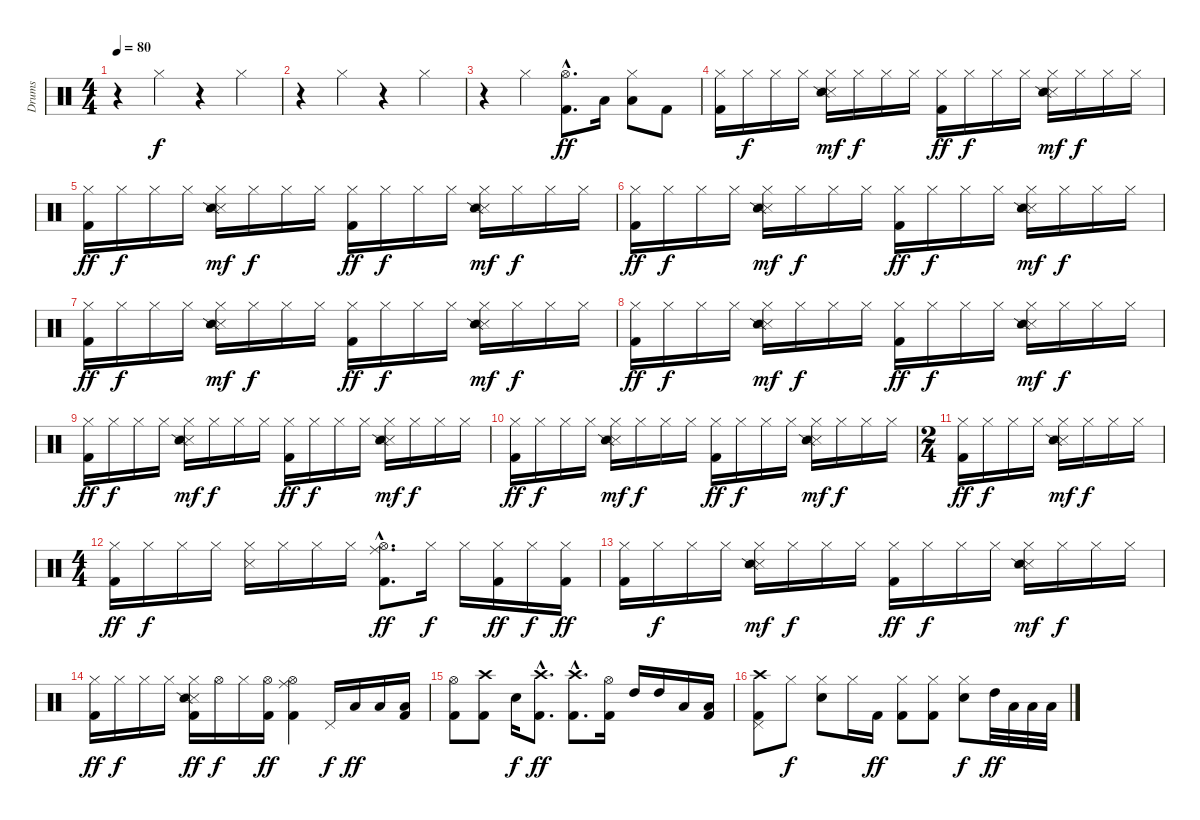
\track ("Drums" "Drums") {instrument percussion}
\staff {score}
\articulation defaults
\ts (4 4)
\tempo 80
\clef neutral
\ks c
r.4{dy f} "Hi-Hat (closed)".4 r.4 "Hi-Hat (closed)".4 |
r.4 "Hi-Hat (closed)".4 r.4 "Hi-Hat (closed)".4 |
r.4 "Hi-Hat (closed)".4 ("Hi-Hat (open)"{hac} "Kick (hit) 2"{hac}).8{d dy ff} "Low Tom (hit)".16 ("Hi-Hat (closed)" "Low Floor Tom (hit)").8 "Kick (hit) 2".8 |
("Hi-Hat (closed)" "Kick (hit) 2").16 "Hi-Hat (closed)".16{dy f} "Hi-Hat (closed)".16 "Hi-Hat (closed)".16 ("Hi-Hat (closed)" "Snare (side stick) 3" "Snare (side stick) 2").16{dy mf} "Hi-Hat (closed)".16{dy f} "Hi-Hat (closed)".16 "Hi-Hat (closed)".16 ("Hi-Hat (closed)" "Kick (hit) 2").16{dy ff} "Hi-Hat (closed)".16{dy f} "Hi-Hat (closed)".16 "Hi-Hat (closed)".16 ("Hi-Hat (closed)" "Snare (side stick) 3" "Snare (side stick) 2").16{dy mf} "Hi-Hat (closed)".16{dy f} "Hi-Hat (closed)".16 "Hi-Hat (closed)".16 |
("Hi-Hat (closed)" "Kick (hit) 2").16{dy ff} "Hi-Hat (closed)".16{dy f} "Hi-Hat (closed)".16 "Hi-Hat (closed)".16 ("Hi-Hat (closed)" "Snare (side stick) 3" "Snare (side stick) 2").16{dy mf} "Hi-Hat (closed)".16{dy f} "Hi-Hat (closed)".16 "Hi-Hat (closed)".16 ("Hi-Hat (closed)" "Kick (hit) 2").16{dy ff} "Hi-Hat (closed)".16{dy f} "Hi-Hat (closed)".16 "Hi-Hat (closed)".16 ("Hi-Hat (closed)" "Snare (side stick) 3" "Snare (side stick) 2").16{dy mf} "Hi-Hat (closed)".16{dy f} "Hi-Hat (closed)".16 "Hi-Hat (closed)".16 |
("Hi-Hat (closed)" "Kick (hit) 2").16{dy ff} "Hi-Hat (closed)".16{dy f} "Hi-Hat (closed)".16 "Hi-Hat (closed)".16 ("Hi-Hat (closed)" "Snare (side stick) 3" "Snare (side stick) 2").16{dy mf} "Hi-Hat (closed)".16{dy f} "Hi-Hat (closed)".16 "Hi-Hat (closed)".16 ("Hi-Hat (closed)" "Kick (hit) 2").16{dy ff} "Hi-Hat (closed)".16{dy f} "Hi-Hat (closed)".16 "Hi-Hat (closed)".16 ("Hi-Hat (closed)" "Snare (side stick) 3" "Snare (side stick) 2").16{dy mf} "Hi-Hat (closed)".16{dy f} "Hi-Hat (closed)".16 "Hi-Hat (closed)".16 |
("Hi-Hat (closed)" "Kick (hit) 2").16{dy ff} "Hi-Hat (closed)".16{dy f} "Hi-Hat (closed)".16 "Hi-Hat (closed)".16 ("Hi-Hat (closed)" "Snare (side stick) 3" "Snare (side stick) 2").16{dy mf} "Hi-Hat (closed)".16{dy f} "Hi-Hat (closed)".16 "Hi-Hat (closed)".16 ("Hi-Hat (closed)" "Kick (hit) 2").16{dy ff} "Hi-Hat (closed)".16{dy f} "Hi-Hat (closed)".16 "Hi-Hat (closed)".16 ("Hi-Hat (closed)" "Snare (side stick) 3" "Snare (side stick) 2").16{dy mf} "Hi-Hat (closed)".16{dy f} "Hi-Hat (closed)".16 "Hi-Hat (closed)".16 |
("Hi-Hat (closed)" "Kick (hit) 2").16{dy ff} "Hi-Hat (closed)".16{dy f} "Hi-Hat (closed)".16 "Hi-Hat (closed)".16 ("Hi-Hat (closed)" "Snare (side stick) 3" "Snare (side stick) 2").16{dy mf} "Hi-Hat (closed)".16{dy f} "Hi-Hat (closed)".16 "Hi-Hat (closed)".16 ("Hi-Hat (closed)" "Kick (hit) 2").16{dy ff} "Hi-Hat (closed)".16{dy f} "Hi-Hat (closed)".16 "Hi-Hat (closed)".16 ("Hi-Hat (closed)" "Snare (side stick) 3" "Snare (side stick) 2").16{dy mf} "Hi-Hat (closed)".16{dy f} "Hi-Hat (closed)".16 "Hi-Hat (closed)".16 |
("Hi-Hat (closed)" "Kick (hit) 2").16{dy ff} "Hi-Hat (closed)".16{dy f} "Hi-Hat (closed)".16 "Hi-Hat (closed)".16 ("Hi-Hat (closed)" "Snare (side stick) 3" "Snare (side stick) 2").16{dy mf} "Hi-Hat (closed)".16{dy f} "Hi-Hat (closed)".16 "Hi-Hat (closed)".16 ("Hi-Hat (closed)" "Kick (hit) 2").16{dy ff} "Hi-Hat (closed)".16{dy f} "Hi-Hat (closed)".16 "Hi-Hat (closed)".16 ("Hi-Hat (closed)" "Snare (side stick) 3" "Snare (side stick) 2").16{dy mf} "Hi-Hat (closed)".16{dy f} "Hi-Hat (closed)".16 "Hi-Hat (closed)".16 |
("Hi-Hat (closed)" "Kick (hit) 2").16{dy ff} "Hi-Hat (closed)".16{dy f} "Hi-Hat (closed)".16 "Hi-Hat (closed)".16 ("Hi-Hat (closed)" "Snare (side stick) 3" "Snare (side stick) 2").16{dy mf} "Hi-Hat (closed)".16{dy f} "Hi-Hat (closed)".16 "Hi-Hat (closed)".16 ("Hi-Hat (closed)" "Kick (hit) 2").16{dy ff} "Hi-Hat (closed)".16{dy f} "Hi-Hat (closed)".16 "Hi-Hat (closed)".16 ("Hi-Hat (closed)" "Snare (side stick) 3" "Snare (side stick) 2").16{dy mf} "Hi-Hat (closed)".16{dy f} "Hi-Hat (closed)".16 "Hi-Hat (closed)".16 |
\ts (2 4)
("Hi-Hat (closed)" "Kick (hit) 2").16{dy ff} "Hi-Hat (closed)".16{dy f} "Hi-Hat (closed)".16 "Hi-Hat (closed)".16 ("Hi-Hat (closed)" "Snare (side stick) 3" "Snare (side stick) 2").16{dy mf} "Hi-Hat (closed)".16{dy f} "Hi-Hat (closed)".16 "Hi-Hat (closed)".16 |
\ts (4 4)
("Hi-Hat (closed)" "Kick (hit) 2").16{dy ff} "Hi-Hat (closed)".16{dy f} "Hi-Hat (closed)".16 "Hi-Hat (closed)".16 ("Hi-Hat (closed)" "Snare (side stick) 3").16 "Hi-Hat (closed)".16 "Hi-Hat (closed)".16 "Hi-Hat (closed)".16 ("Ride (middle)"{hac} "Hi-Hat (open)"{hac} "Kick (hit) 2"{hac}).8{d dy ff} "Hi-Hat (closed)".16{dy f} "Hi-Hat (closed)".16 ("Hi-Hat (closed)" "Kick (hit) 2").16{dy ff} "Hi-Hat (closed)".16{dy f} ("Hi-Hat (closed)" "Kick (hit) 2").16{dy ff} |
("Hi-Hat (closed)" "Kick (hit) 2").16 "Hi-Hat (closed)".16{dy f} "Hi-Hat (closed)".16 "Hi-Hat (closed)".16 ("Hi-Hat (closed)" "Snare (side stick) 3" "Snare (side stick) 2").16{dy mf} "Hi-Hat (closed)".16{dy f} "Hi-Hat (closed)".16 "Hi-Hat (closed)".16 ("Hi-Hat (closed)" "Kick (hit) 2").16{dy ff} "Hi-Hat (closed)".16{dy f} "Hi-Hat (closed)".16 "Hi-Hat (closed)".16 ("Hi-Hat (closed)" "Snare (side stick) 3" "Snare (side stick) 2").16{dy mf} "Hi-Hat (closed)".16{dy f} "Hi-Hat (closed)".16 "Hi-Hat (closed)".16 |
("Hi-Hat (closed)" "Kick (hit) 2").16{dy ff} "Hi-Hat (closed)".16{dy f} "Hi-Hat (closed)".16 "Hi-Hat (closed)".16 ("Hi-Hat (closed)" "Snare (side stick) 3" "Snare (side stick) 2" "Kick (hit) 2").16{dy ff} "Hi-Hat (open)".16{dy f} "Hi-Hat (closed)".16 ("Hi-Hat (open)" "Kick (hit) 2").16{dy ff} ("Ride (middle)" "Hi-Hat (open)" "Kick (hit) 2").4 "Pedal Hi-Hat (hit)".16{dy f} "Low Tom (hit)".16{dy ff} "Low Floor Tom (hit)".16 ("Low Floor Tom (hit)" "Kick (hit) 2").16 |
("Hi-Hat (open)" "Kick (hit) 2").8 ("Crash high (hit)" "Kick (hit) 2").8 "Snare (hit) 2".16{dy f} ("Crash high (hit)"{hac} "Kick (hit) 2"{hac}).8{d dy ff} ("Crash high (hit)"{hac} "Kick (hit) 2"{hac}).8{d} ("Hi-Hat (open)" "Kick (hit) 2").16 "High Tom (hit)".16 "High Tom (hit)".16 "Low Tom (hit)".16 ("Low Floor Tom (hit)" "Kick (hit) 2").16 |
("Crash high (hit)" "Pedal Hi-Hat (hit)" "Kick (hit) 2").8 "Hi-Hat (closed)".8{dy f} ("Hi-Hat (closed)" "Snare (hit) 2").8 "Hi-Hat (closed)".16 "Kick (hit) 2".16{dy ff} ("Hi-Hat (closed)" "Kick (hit) 2").8 ("Hi-Hat (closed)" "Kick (hit) 2").8 ("Hi-Hat (closed)" "Snare (hit) 2").8{dy f} "High Tom (hit)".32{dy ff} "Low Tom (hit)".32 "Low Tom (hit)".32 "Low Floor Tom (hit)".32
